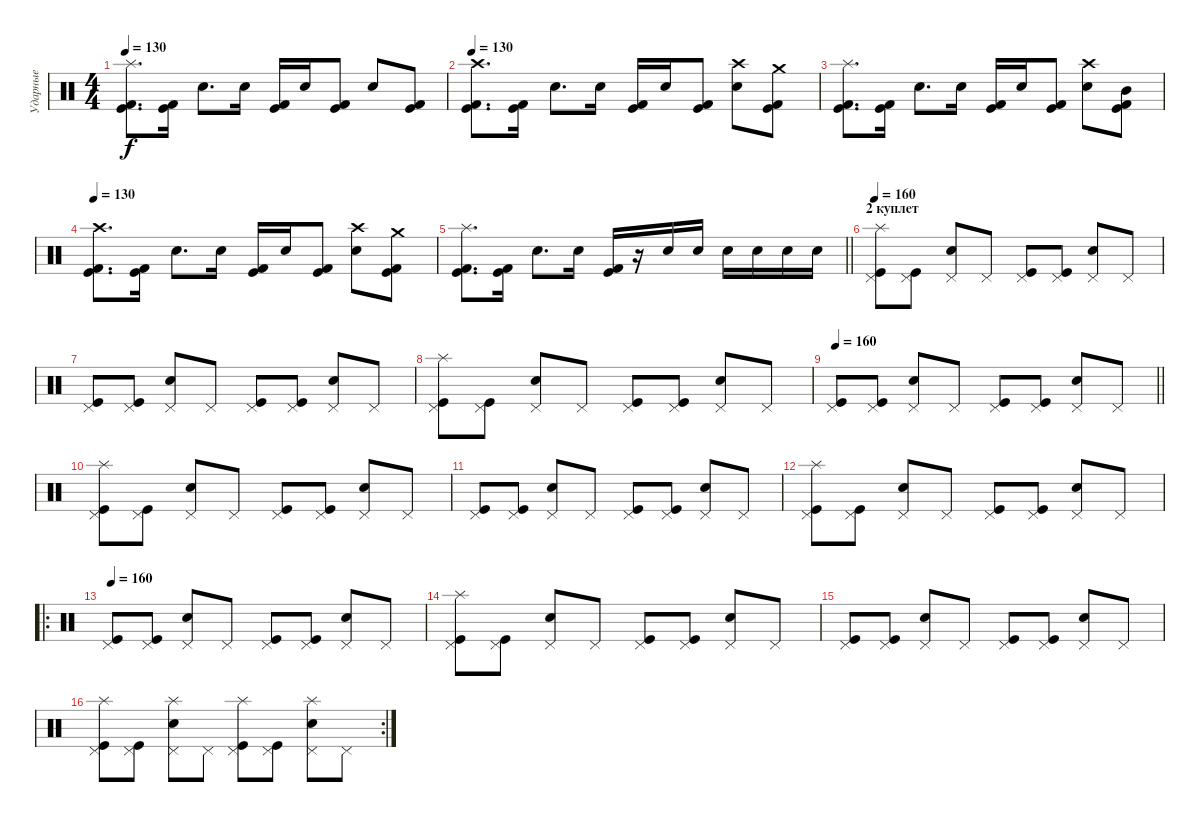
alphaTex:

\track ("Ударные" "Ударные") {solo instrument percussion}
\staff {score}
\articulation defaults
\ts (4 4)
\tempo 130
\clef neutral
\ks c
("Splash (hit)" "Kick (hit)" "Kick (hit) 2").8{d dy f} ("Kick (hit)" "Kick (hit) 2").16 "Snare (hit) 2".8{d} "Snare (hit) 2".16 ("Kick (hit)" "Kick (hit) 2").16 "Snare (hit) 2".16 ("Kick (hit)" "Kick (hit) 2").8 "Snare (hit) 2".8 ("Kick (hit)" "Kick (hit) 2").8 |
\tempo 130
("Crash high (hit)" "Kick (hit)" "Kick (hit) 2").8{d} ("Kick (hit)" "Kick (hit) 2").16 "Snare (hit) 2".8{d} "Snare (hit) 2".16 ("Kick (hit)" "Kick (hit) 2").16 "Snare (hit) 2".16 ("Kick (hit)" "Kick (hit) 2").8 ("Crash high (hit)" "Snare (hit) 2").8 ("Crash medium (hit)" "Kick (hit)" "Kick (hit) 2").8 |
("Splash (hit)" "Kick (hit)" "Kick (hit) 2").8{d} ("Kick (hit)" "Kick (hit) 2").16 "Snare (hit) 2".8{d} "Snare (hit) 2".16 ("Kick (hit)" "Kick (hit) 2").16 "Snare (hit) 2".16 ("Kick (hit)" "Kick (hit) 2").8 ("Crash high (hit)" "Snare (hit) 2").8 ("Mid Tom (hit)" "Kick (hit)" "Kick (hit) 2").8 |
\tempo 130
("Crash high (hit)" "Kick (hit)" "Kick (hit) 2").8{d} ("Kick (hit)" "Kick (hit) 2").16 "Snare (hit) 2".8{d} "Snare (hit) 2".16 ("Kick (hit)" "Kick (hit) 2").16 "Snare (hit) 2".16 ("Kick (hit)" "Kick (hit) 2").8 ("Crash high (hit)" "Snare (hit) 2").8 ("Crash medium (hit)" "Kick (hit)" "Kick (hit) 2").8 |
\barLineRight lightlight
("Splash (hit)" "Kick (hit)" "Kick (hit) 2").8{d} ("Kick (hit)" "Kick (hit) 2").16 "Snare (hit) 2".8{d} "Snare (hit) 2".16 ("Kick (hit)" "Kick (hit) 2").16 r.16 "Snare (hit) 2".16 "Snare (hit) 2".16 "Snare (hit) 2".16 "Snare (hit) 2".16 "Snare (hit) 2".16 "Snare (hit) 2".16 |
\section ("" "2 куплет")
\tempo 160
("Splash (hit)" "Pedal Hi-Hat (hit)" "Kick (hit)").8 ("Pedal Hi-Hat (hit)" "Kick (hit)").8 ("Pedal Hi-Hat (hit)" "Snare (hit) 2").8 "Pedal Hi-Hat (hit)".8 ("Pedal Hi-Hat (hit)" "Kick (hit)").8 ("Pedal Hi-Hat (hit)" "Kick (hit)").8 ("Pedal Hi-Hat (hit)" "Snare (hit) 2").8 "Pedal Hi-Hat (hit)".8 |
("Pedal Hi-Hat (hit)" "Kick (hit)").8 ("Pedal Hi-Hat (hit)" "Kick (hit)").8 ("Pedal Hi-Hat (hit)" "Snare (hit) 2").8 "Pedal Hi-Hat (hit)".8 ("Pedal Hi-Hat (hit)" "Kick (hit)").8 ("Pedal Hi-Hat (hit)" "Kick (hit)").8 ("Pedal Hi-Hat (hit)" "Snare (hit) 2").8 "Pedal Hi-Hat (hit)".8 |
("Splash (hit)" "Pedal Hi-Hat (hit)" "Kick (hit)").8 ("Pedal Hi-Hat (hit)" "Kick (hit)").8 ("Pedal Hi-Hat (hit)" "Snare (hit) 2").8 "Pedal Hi-Hat (hit)".8 ("Pedal Hi-Hat (hit)" "Kick (hit)").8 ("Pedal Hi-Hat (hit)" "Kick (hit)").8 ("Pedal Hi-Hat (hit)" "Snare (hit) 2").8 "Pedal Hi-Hat (hit)".8 |
\tempo 160
\barLineRight lightlight
("Pedal Hi-Hat (hit)" "Kick (hit)").8 ("Pedal Hi-Hat (hit)" "Kick (hit)").8 ("Pedal Hi-Hat (hit)" "Snare (hit) 2").8 "Pedal Hi-Hat (hit)".8 ("Pedal Hi-Hat (hit)" "Kick (hit)").8 ("Pedal Hi-Hat (hit)" "Kick (hit)").8 ("Pedal Hi-Hat (hit)" "Snare (hit) 2").8 "Pedal Hi-Hat (hit)".8 |
("Splash (hit)" "Pedal Hi-Hat (hit)" "Kick (hit)").8 ("Pedal Hi-Hat (hit)" "Kick (hit)").8 ("Pedal Hi-Hat (hit)" "Snare (hit) 2").8 "Pedal Hi-Hat (hit)".8 ("Pedal Hi-Hat (hit)" "Kick (hit)").8 ("Pedal Hi-Hat (hit)" "Kick (hit)").8 ("Pedal Hi-Hat (hit)" "Snare (hit) 2").8 "Pedal Hi-Hat (hit)".8 |
("Pedal Hi-Hat (hit)" "Kick (hit)").8 ("Pedal Hi-Hat (hit)" "Kick (hit)").8 ("Pedal Hi-Hat (hit)" "Snare (hit) 2").8 "Pedal Hi-Hat (hit)".8 ("Pedal Hi-Hat (hit)" "Kick (hit)").8 ("Pedal Hi-Hat (hit)" "Kick (hit)").8 ("Pedal Hi-Hat (hit)" "Snare (hit) 2").8 "Pedal Hi-Hat (hit)".8 |
("Splash (hit)" "Pedal Hi-Hat (hit)" "Kick (hit)").8 ("Pedal Hi-Hat (hit)" "Kick (hit)").8 ("Pedal Hi-Hat (hit)" "Snare (hit) 2").8 "Pedal Hi-Hat (hit)".8 ("Pedal Hi-Hat (hit)" "Kick (hit)").8 ("Pedal Hi-Hat (hit)" "Kick (hit)").8 ("Pedal Hi-Hat (hit)" "Snare (hit) 2").8 "Pedal Hi-Hat (hit)".8 |
\ro
\tempo 160
("Pedal Hi-Hat (hit)" "Kick (hit)").8 ("Pedal Hi-Hat (hit)" "Kick (hit)").8 ("Pedal Hi-Hat (hit)" "Snare (hit) 2").8 "Pedal Hi-Hat (hit)".8 ("Pedal Hi-Hat (hit)" "Kick (hit)").8 ("Pedal Hi-Hat (hit)" "Kick (hit)").8 ("Pedal Hi-Hat (hit)" "Snare (hit) 2").8 "Pedal Hi-Hat (hit)".8 |
("Splash (hit)" "Pedal Hi-Hat (hit)" "Kick (hit)").8 ("Pedal Hi-Hat (hit)" "Kick (hit)").8 ("Pedal Hi-Hat (hit)" "Snare (hit) 2").8 "Pedal Hi-Hat (hit)".8 ("Pedal Hi-Hat (hit)" "Kick (hit)").8 ("Pedal Hi-Hat (hit)" "Kick (hit)").8 ("Pedal Hi-Hat (hit)" "Snare (hit) 2").8 "Pedal Hi-Hat (hit)".8 |
("Pedal Hi-Hat (hit)" "Kick (hit)").8 ("Pedal Hi-Hat (hit)" "Kick (hit)").8 ("Pedal Hi-Hat (hit)" "Snare (hit) 2").8 "Pedal Hi-Hat (hit)".8 ("Pedal Hi-Hat (hit)" "Kick (hit)").8 ("Pedal Hi-Hat (hit)" "Kick (hit)").8 ("Pedal Hi-Hat (hit)" "Snare (hit) 2").8 "Pedal Hi-Hat (hit)".8 |
\rc 2
("Splash (hit)" "Pedal Hi-Hat (hit)" "Kick (hit)").8 ("Pedal Hi-Hat (hit)" "Kick (hit)").8 ("Splash (hit)" "Pedal Hi-Hat (hit)" "Snare (hit) 2").8 "Pedal Hi-Hat (hit)".8 ("Splash (hit)" "Pedal Hi-Hat (hit)" "Kick (hit)").8 ("Pedal Hi-Hat (hit)" "Kick (hit)").8 ("Splash (hit)" "Pedal Hi-Hat (hit)" "Snare (hit) 2").8 "Pedal Hi-Hat (hit)".8
